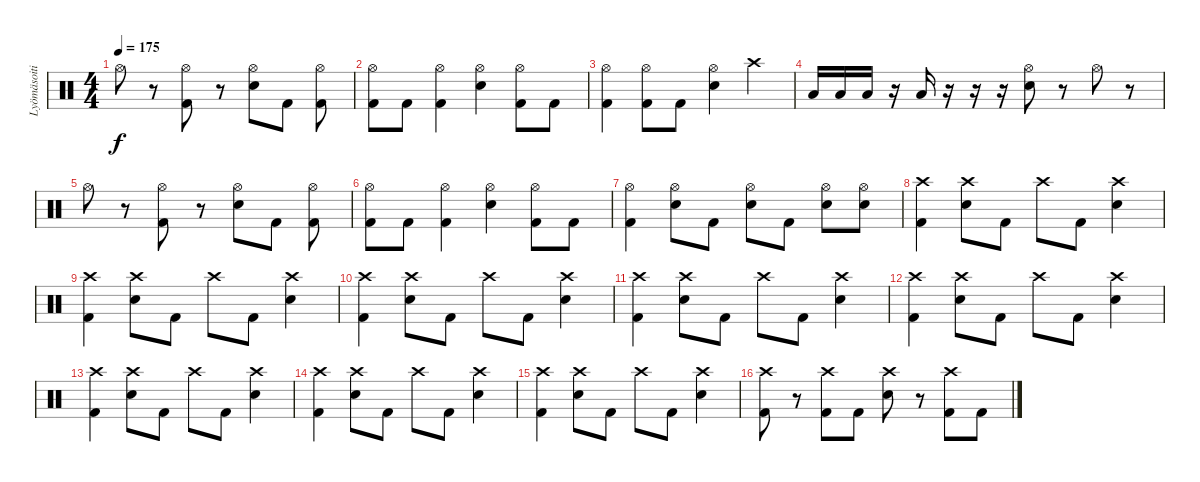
\track ("Lyömäsoitin" "Lyömäsoiti") {instrument percussion}
\staff {score}
\articulation defaults
\ts (4 4)
\tempo 175
\clef neutral
\ks c "Hi-Hat (open)".8{dy f}
r.8 ("Kick (hit) 2" "Hi-Hat (open)").8 r.8 ("Electric Snare (hit)" "Hi-Hat (open)").8 "Kick (hit) 2".8 ("Kick (hit) 2" "Hi-Hat (open)").8 |
("Kick (hit) 2" "Hi-Hat (open)").8 "Kick (hit) 2".8 ("Kick (hit) 2" "Hi-Hat (open)").4 ("Electric Snare (hit)" "Hi-Hat (open)").4 ("Kick (hit) 2" "Hi-Hat (open)").8 "Kick (hit) 2".8 |
("Kick (hit) 2" "Hi-Hat (open)").4 ("Kick (hit) 2" "Hi-Hat (open)").8 "Kick (hit) 2".8 ("Electric Snare (hit)" "Hi-Hat (open)").4 "Crash high (hit)".4 |
"Low Tom (hit)".16 "Low Tom (hit)".16 "Low Tom (hit)".16 r.16 "Low Floor Tom (hit)".16 r.16 r.16 r.16 ("Electric Snare (hit)" "Hi-Hat (open)").8 r.8 "Hi-Hat (open)".8 r.8 |
"Hi-Hat (open)".8 r.8 ("Kick (hit) 2" "Hi-Hat (open)").8 r.8 ("Electric Snare (hit)" "Hi-Hat (open)").8 "Kick (hit) 2".8 ("Kick (hit) 2" "Hi-Hat (open)").8 |
("Kick (hit) 2" "Hi-Hat (open)").8 "Kick (hit) 2".8 ("Kick (hit) 2" "Hi-Hat (open)").4 ("Electric Snare (hit)" "Hi-Hat (open)").4 ("Kick (hit) 2" "Hi-Hat (open)").8 "Kick (hit) 2".8 |
("Kick (hit) 2" "Hi-Hat (open)").4 ("Electric Snare (hit)" "Hi-Hat (open)").8 "Kick (hit) 2".8 ("Electric Snare (hit)" "Hi-Hat (open)").8 "Kick (hit) 2".8 ("Electric Snare (hit)" "Hi-Hat (open)").8 ("Electric Snare (hit)" "Hi-Hat (open)").8 |
("Kick (hit) 2" "Crash high (hit)").4 ("Electric Snare (hit)" "Crash high (hit)").8 "Kick (hit) 2".8 "Crash high (hit)".8 "Kick (hit) 2".8 ("Electric Snare (hit)" "Crash high (hit)").4 |
("Kick (hit) 2" "Crash high (hit)").4 ("Electric Snare (hit)" "Crash high (hit)").8 "Kick (hit) 2".8 "Crash high (hit)".8 "Kick (hit) 2".8 ("Electric Snare (hit)" "Crash high (hit)").4 |
("Kick (hit) 2" "Crash high (hit)").4 ("Electric Snare (hit)" "Crash high (hit)").8 "Kick (hit) 2".8 "Crash high (hit)".8 "Kick (hit) 2".8 ("Electric Snare (hit)" "Crash high (hit)").4 |
("Kick (hit) 2" "Crash high (hit)").4 ("Electric Snare (hit)" "Crash high (hit)").8 "Kick (hit) 2".8 "Crash high (hit)".8 "Kick (hit) 2".8 ("Electric Snare (hit)" "Crash high (hit)").4 |
("Kick (hit) 2" "Crash high (hit)").4 ("Electric Snare (hit)" "Crash high (hit)").8 "Kick (hit) 2".8 "Crash high (hit)".8 "Kick (hit) 2".8 ("Electric Snare (hit)" "Crash high (hit)").4 |
("Kick (hit) 2" "Crash high (hit)").4 ("Electric Snare (hit)" "Crash high (hit)").8 "Kick (hit) 2".8 "Crash high (hit)".8 "Kick (hit) 2".8 ("Electric Snare (hit)" "Crash high (hit)").4 |
("Kick (hit) 2" "Crash high (hit)").4 ("Electric Snare (hit)" "Crash high (hit)").8 "Kick (hit) 2".8 "Crash high (hit)".8 "Kick (hit) 2".8 ("Electric Snare (hit)" "Crash high (hit)").4 |
("Kick (hit) 2" "Crash high (hit)").4 ("Electric Snare (hit)" "Crash high (hit)").8 "Kick (hit) 2".8 "Crash high (hit)".8 "Kick (hit) 2".8 ("Electric Snare (hit)" "Crash high (hit)").4 |
("Kick (hit) 2" "Crash high (hit)").8 r.8 ("Kick (hit) 2" "Crash high (hit)").8 "Kick (hit) 2".8 ("Electric Snare (hit)" "Crash high (hit)").8 r.8 ("Kick (hit) 2" "Crash high (hit)").8 "Kick (hit) 2".8
